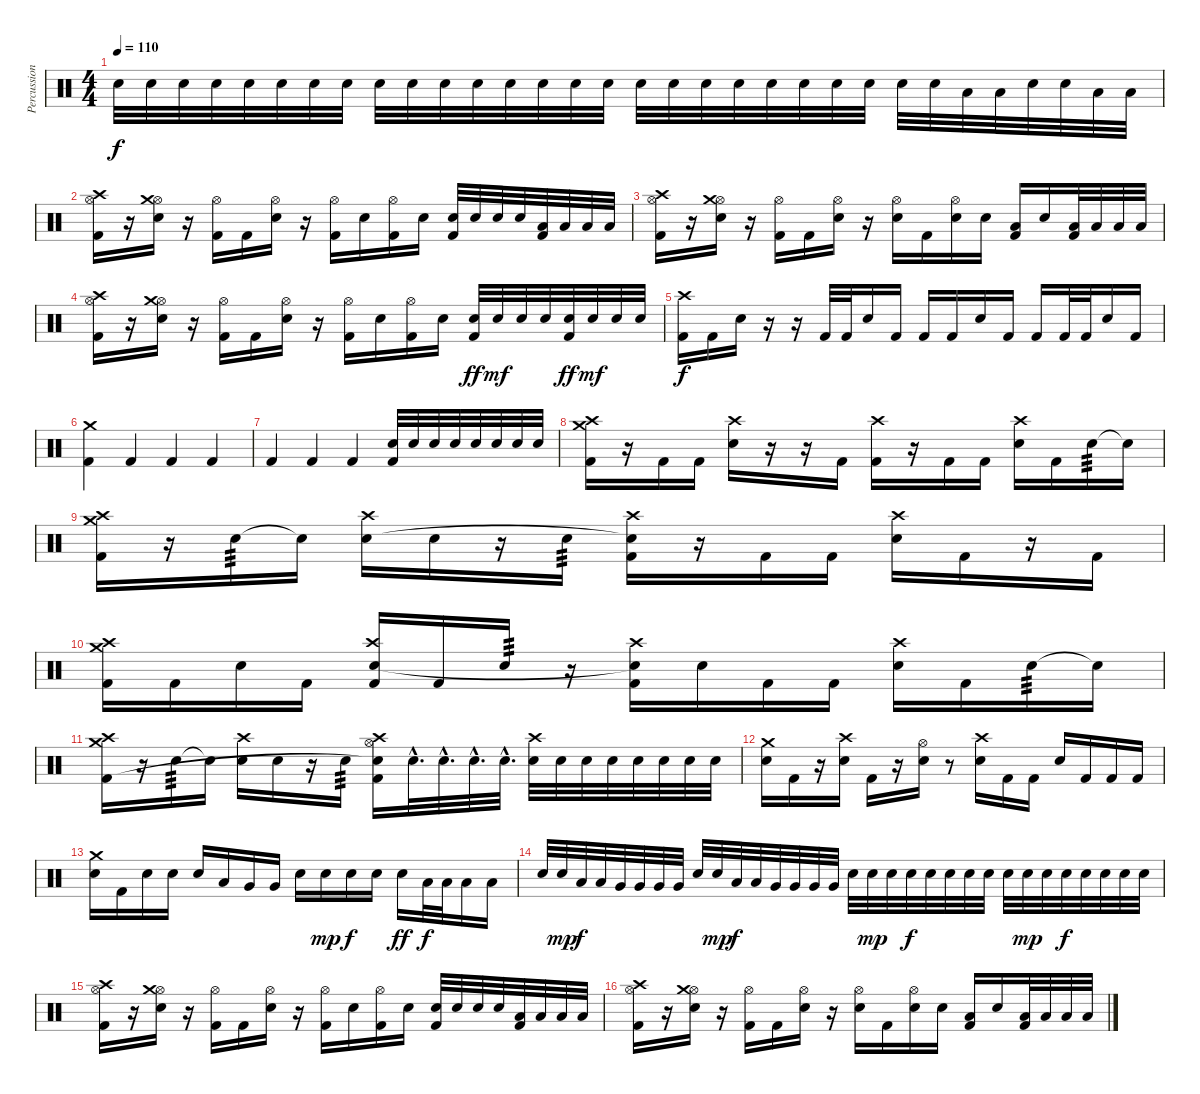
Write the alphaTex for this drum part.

\track ("Percussion" "Percussion") {instrument percussion}
\staff {score}
\articulation defaults
\ts (4 4)
\tempo 110
\clef neutral
\ks c "Electric Snare (hit)".32{dy f volume 10} "Electric Snare (hit)".32{volume 13} "Electric Snare (hit)".32 "Electric Snare (hit)".32 "Electric Snare (hit)".32 "Electric Snare (hit)".32 "Electric Snare (hit)".32 "Electric Snare (hit)".32 "Electric Snare (hit)".32 "Electric Snare (hit)".32 "Electric Snare (hit)".32 "Electric Snare (hit)".32 "Electric Snare (hit)".32 "Electric Snare (hit)".32 "Electric Snare (hit)".32 "Electric Snare (hit)".32 "Electric Snare (hit)".32 "Electric Snare (hit)".32 "Electric Snare (hit)".32 "Electric Snare (hit)".32 "Electric Snare (hit)".32 "Electric Snare (hit)".32 "Electric Snare (hit)".32 "Electric Snare (hit)".32 "Electric Snare (hit)".32 "Electric Snare (hit)".32 "Low Tom (hit)".32 "Low Tom (hit)".32 "Electric Snare (hit)".32 "Electric Snare (hit)".32 "Low Tom (hit)".32 "Low Tom (hit)".32
|
("Hi-Hat (open)" "Crash high (hit)" "Kick (hit) 2").16 r.16 ("Hi-Hat (open)" "Crash medium (hit)" "Electric Snare (hit)").16 r.16 ("Hi-Hat (open)" "Kick (hit) 2").16 "Kick (hit) 2".16 ("Hi-Hat (open)" "Electric Snare (hit)").16 r.16 ("Hi-Hat (open)" "Kick (hit) 2").16 "Electric Snare (hit)".16 ("Hi-Hat (open)" "Kick (hit) 2").16 "Electric Snare (hit)".16 ("Electric Snare (hit)" "Kick (hit) 2").32 "Electric Snare (hit)".32 "Electric Snare (hit)".32 "Electric Snare (hit)".32 ("Low Tom (hit)" "Kick (hit) 2").32 "Low Tom (hit)".32 "Low Tom (hit)".32 "Low Tom (hit)".32 |
("Hi-Hat (open)" "Crash high (hit)" "Kick (hit) 2").16 r.16 ("Hi-Hat (open)" "Crash medium (hit)" "Electric Snare (hit)").16 r.16 ("Hi-Hat (open)" "Kick (hit) 2").16 "Kick (hit) 2".16 ("Hi-Hat (open)" "Electric Snare (hit)").16 r.16 ("Hi-Hat (open)" "Electric Snare (hit)").16 "Kick (hit) 2".16 ("Hi-Hat (open)" "Electric Snare (hit)").16 "Electric Snare (hit)".16 ("Low Tom (hit)" "Kick (hit) 2").16 "Electric Snare (hit)".16 ("Low Tom (hit)" "Kick (hit) 2").32 "Low Tom (hit)".32 "Low Tom (hit)".32 "Low Tom (hit)".32 |
("Hi-Hat (open)" "Crash high (hit)" "Kick (hit) 2").16 r.16 ("Hi-Hat (open)" "Crash medium (hit)" "Electric Snare (hit)").16 r.16 ("Hi-Hat (open)" "Kick (hit) 2").16 "Kick (hit) 2".16 ("Hi-Hat (open)" "Electric Snare (hit)").16 r.16 ("Hi-Hat (open)" "Kick (hit) 2").16 "Electric Snare (hit)".16 ("Hi-Hat (open)" "Kick (hit) 2").16 "Electric Snare (hit)".16 ("Electric Snare (hit)" "Kick (hit) 2").32{dy ff} "Electric Snare (hit)".32{dy mf} "Electric Snare (hit)".32 "Electric Snare (hit)".32 ("Electric Snare (hit)" "Kick (hit) 2").32{dy ff} "Electric Snare (hit)".32{dy mf} "Electric Snare (hit)".32 "Electric Snare (hit)".32 |
("Crash high (hit)" "Kick (hit) 2").16{dy f} "Kick (hit) 2".16 "Electric Snare (hit)".16 r.16 r.16 "Kick (hit) 2".32 "Kick (hit) 2".32 "Electric Snare (hit)".16 "Kick (hit) 2".16 "Kick (hit) 2".16 "Kick (hit) 2".16 "Electric Snare (hit)".16 "Kick (hit) 2".16 "Kick (hit) 2".16 "Kick (hit) 2".32 "Kick (hit) 2".32 "Electric Snare (hit)".16 "Kick (hit) 2".16 |
("Crash medium (hit)" "Kick (hit) 2").4 "Kick (hit) 2".4 "Kick (hit) 2".4 "Kick (hit) 2".4 |
"Kick (hit) 2".4 "Kick (hit) 2".4 "Kick (hit) 2".4 ("Electric Snare (hit)" "Kick (hit) 2").32 "Electric Snare (hit)".32 "Electric Snare (hit)".32 "Electric Snare (hit)".32 "Electric Snare (hit)".32 "Electric Snare (hit)".32 "Electric Snare (hit)".32 "Electric Snare (hit)".32 |
("Crash high (hit)" "Crash medium (hit)" "Kick (hit) 2").16 r.16 "Kick (hit) 2".16 "Kick (hit) 2".16 ("Crash high (hit)" "Electric Snare (hit)").16 r.16 r.16 "Kick (hit) 2".16 ("Crash high (hit)" "Kick (hit) 2").16 r.16 "Kick (hit) 2".16 "Kick (hit) 2".16 ("Crash high (hit)" "Electric Snare (hit)").16 "Kick (hit) 2".16 "Electric Snare (hit)".16{tp 3} "Snare (hit)"{t}.16 |
("Crash high (hit)" "Crash medium (hit)" "Kick (hit) 2").16 r.16 "Electric Snare (hit)".16{tp 3} "Snare (hit)"{t}.16 ("Crash high (hit)" "Electric Snare (hit)").16 "Electric Snare (hit)".16 r.16 "Electric Snare (hit)".16{tp 3} ("Crash high (hit)" "Snare (hit)"{t} "Kick (hit) 2").16 r.16 "Kick (hit) 2".16 "Kick (hit) 2".16 ("Crash high (hit)" "Electric Snare (hit)").16 "Kick (hit) 2".16 r.16 "Kick (hit) 2".16 |
("Crash high (hit)" "Crash medium (hit)" "Kick (hit) 2").16 "Kick (hit) 2".16 "Electric Snare (hit)".16 "Kick (hit) 2".16 ("Crash high (hit)" "Electric Snare (hit)" "Kick (hit) 2").16 "Kick (hit) 2".16 "Electric Snare (hit)".16{tp 3} r.16 ("Crash high (hit)" "Snare (hit)"{t} "Kick (hit) 2").16 "Electric Snare (hit)".16 "Kick (hit) 2".16 "Kick (hit) 2".16 ("Crash high (hit)" "Electric Snare (hit)").16 "Kick (hit) 2".16 "Electric Snare (hit)".16{tp 3} "Snare (hit)"{t}.16 |
("Crash high (hit)" "Crash medium (hit)" "Kick (hit) 2").16 r.16 "Electric Snare (hit)".16{tp 3} "Snare (hit)"{t}.16 ("Crash high (hit)" "Electric Snare (hit)").16 "Electric Snare (hit)".16 r.16 "Electric Snare (hit)".16{tp 3} ("Crash high (hit)" "Hi-Hat (open)" "Snare (hit)"{t} "Kick (hit) 2").16 "Electric Snare (hit)"{hac}.32{d} "Electric Snare (hit)"{hac}.32{d} "Electric Snare (hit)"{hac}.32{d} "Electric Snare (hit)"{hac}.32{d} ("Crash high (hit)" "Electric Snare (hit)").32 "Electric Snare (hit)".32 "Electric Snare (hit)".32 "Electric Snare (hit)".32 "Electric Snare (hit)".32 "Electric Snare (hit)".32 "Electric Snare (hit)".32 "Electric Snare (hit)".32 |
("Crash medium (hit)" "Electric Snare (hit)").16 "Kick (hit) 2".16 r.16 ("Crash high (hit)" "Electric Snare (hit)").16 "Kick (hit) 2".16 r.16 ("Hi-Hat (open)" "Electric Snare (hit)").16 r.8 ("Crash high (hit)" "Electric Snare (hit)").16 "Kick (hit) 2".16 "Kick (hit) 2".16 "Electric Snare (hit)".16 "Kick (hit) 2".16 "Kick (hit) 2".16 "Kick (hit) 2".16 |
("Crash medium (hit)" "Electric Snare (hit)").16 "Kick (hit) 2".16 "Electric Snare (hit)".16 "Electric Snare (hit)".16 "Electric Snare (hit)".16 "Low Tom (hit)".16 "Very Low Tom (hit)".16 "Very Low Tom (hit)".16 "Electric Snare (hit)".16 "Electric Snare (hit)".16{dy mp} "Electric Snare (hit)".16{dy f} "Electric Snare (hit)".16 "Electric Snare (hit)".16{dy ff} "Low Tom (hit)".32{dy f} "Low Tom (hit)".32 "Low Tom (hit)".16 "Low Tom (hit)".16 |
"Electric Snare (hit)".32 "Electric Snare (hit)".32{dy mp} "Low Tom (hit)".32{dy f} "Low Tom (hit)".32 "Very Low Tom (hit)".32 "Very Low Tom (hit)".32 "Very Low Tom (hit)".32 "Very Low Tom (hit)".32 "Electric Snare (hit)".32 "Electric Snare (hit)".32{dy mp} "Low Tom (hit)".32{dy f} "Low Tom (hit)".32 "Very Low Tom (hit)".32 "Very Low Tom (hit)".32 "Very Low Tom (hit)".32 "Very Low Tom (hit)".32 "Electric Snare (hit)".32 "Electric Snare (hit)".32{dy mp} "Electric Snare (hit)".32 "Electric Snare (hit)".32{dy f} "Electric Snare (hit)".32 "Electric Snare (hit)".32 "Electric Snare (hit)".32 "Electric Snare (hit)".32 "Electric Snare (hit)".32 "Electric Snare (hit)".32{dy mp} "Electric Snare (hit)".32 "Electric Snare (hit)".32{dy f} "Electric Snare (hit)".32 "Electric Snare (hit)".32 "Electric Snare (hit)".32 "Electric Snare (hit)".32 |
("Hi-Hat (open)" "Crash high (hit)" "Kick (hit) 2").16 r.16 ("Hi-Hat (open)" "Crash medium (hit)" "Electric Snare (hit)").16 r.16 ("Hi-Hat (open)" "Kick (hit) 2").16 "Kick (hit) 2".16 ("Hi-Hat (open)" "Electric Snare (hit)").16 r.16 ("Hi-Hat (open)" "Kick (hit) 2").16 "Electric Snare (hit)".16 ("Hi-Hat (open)" "Kick (hit) 2").16 "Electric Snare (hit)".16 ("Electric Snare (hit)" "Kick (hit) 2").32 "Electric Snare (hit)".32 "Electric Snare (hit)".32 "Electric Snare (hit)".32 ("Low Tom (hit)" "Kick (hit) 2").32 "Low Tom (hit)".32 "Low Tom (hit)".32 "Low Tom (hit)".32 |
("Hi-Hat (open)" "Crash high (hit)" "Kick (hit) 2").16 r.16 ("Hi-Hat (open)" "Crash medium (hit)" "Electric Snare (hit)").16 r.16 ("Hi-Hat (open)" "Kick (hit) 2").16 "Kick (hit) 2".16 ("Hi-Hat (open)" "Electric Snare (hit)").16 r.16 ("Hi-Hat (open)" "Electric Snare (hit)").16 "Kick (hit) 2".16 ("Hi-Hat (open)" "Electric Snare (hit)").16 "Electric Snare (hit)".16 ("Low Tom (hit)" "Kick (hit) 2").16 "Electric Snare (hit)".16 ("Low Tom (hit)" "Kick (hit) 2").32 "Low Tom (hit)".32 "Low Tom (hit)".32 "Low Tom (hit)".32
